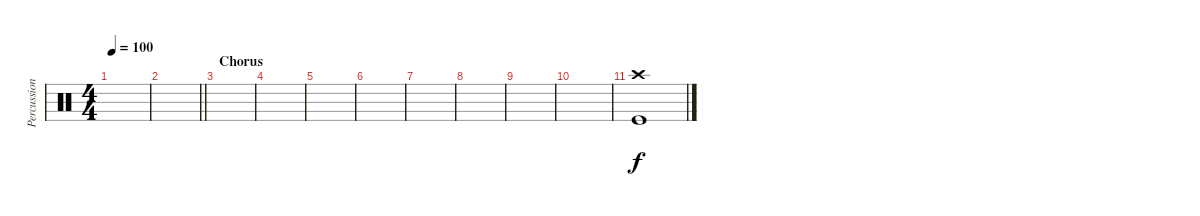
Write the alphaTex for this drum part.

\track ("Percussion" "Percussion") {instrument percussion}
\staff {score}
\articulation defaults
\ts (4 4)
\tempo 100
\clef neutral
\ks c
|
\barLineRight lightlight
|
\section ("" "Chorus")
|
|
|
|
|
|
|
|
("Kick (hit)" "Crash high (hit)").1
